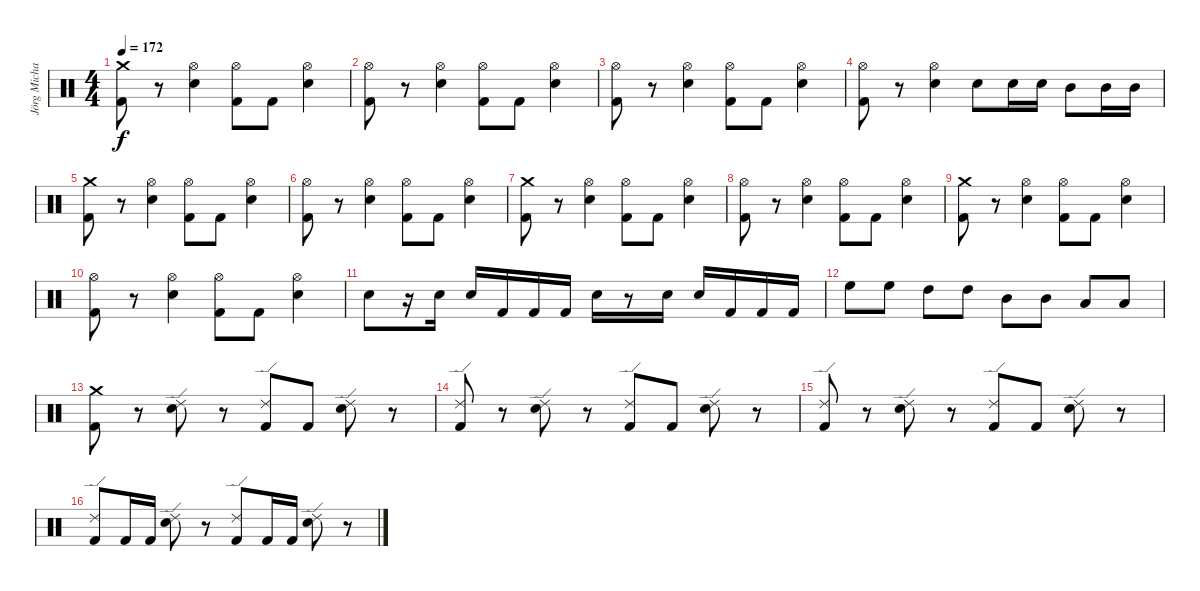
\track ("Jörg Michael" "Jörg Micha") {instrument percussion}
\staff {score}
\articulation defaults
\ts (4 4)
\tempo 172
\clef neutral
\ks c
("Kick (hit) 2" "Crash medium (hit)").8{dy f} r.8 ("Hi-Hat (open)" "Electric Snare (hit)").4 ("Hi-Hat (open)" "Kick (hit) 2").8 "Kick (hit) 2".8 ("Hi-Hat (open)" "Electric Snare (hit)").4 |
("Hi-Hat (open)" "Kick (hit) 2").8 r.8 ("Hi-Hat (open)" "Electric Snare (hit)").4 ("Hi-Hat (open)" "Kick (hit) 2").8 "Kick (hit) 2".8 ("Hi-Hat (open)" "Electric Snare (hit)").4 |
("Hi-Hat (open)" "Kick (hit) 2").8 r.8 ("Hi-Hat (open)" "Electric Snare (hit)").4 ("Hi-Hat (open)" "Kick (hit) 2").8 "Kick (hit) 2".8 ("Hi-Hat (open)" "Electric Snare (hit)").4 |
("Hi-Hat (open)" "Kick (hit) 2").8 r.8 ("Hi-Hat (open)" "Electric Snare (hit)").4 "Electric Snare (hit)".8 "Electric Snare (hit)".16 "Electric Snare (hit)".16 "Mid Tom (hit)".8 "Mid Tom (hit)".16 "Mid Tom (hit)".16 |
("Kick (hit) 2" "Crash medium (hit)").8 r.8 ("Hi-Hat (open)" "Electric Snare (hit)").4 ("Hi-Hat (open)" "Kick (hit) 2").8 "Kick (hit) 2".8 ("Hi-Hat (open)" "Electric Snare (hit)").4 |
("Hi-Hat (open)" "Kick (hit) 2").8 r.8 ("Hi-Hat (open)" "Electric Snare (hit)").4 ("Hi-Hat (open)" "Kick (hit) 2").8 "Kick (hit) 2".8 ("Hi-Hat (open)" "Electric Snare (hit)").4 |
("Crash medium (hit)" "Kick (hit) 2").8 r.8 ("Hi-Hat (open)" "Electric Snare (hit)").4 ("Hi-Hat (open)" "Kick (hit) 2").8 "Kick (hit) 2".8 ("Hi-Hat (open)" "Electric Snare (hit)").4 |
("Hi-Hat (open)" "Kick (hit) 2").8 r.8 ("Hi-Hat (open)" "Electric Snare (hit)").4 ("Hi-Hat (open)" "Kick (hit) 2").8 "Kick (hit) 2".8 ("Hi-Hat (open)" "Electric Snare (hit)").4 |
("Kick (hit) 2" "Crash medium (hit)").8 r.8 ("Hi-Hat (open)" "Electric Snare (hit)").4 ("Hi-Hat (open)" "Kick (hit) 2").8 "Kick (hit) 2".8 ("Hi-Hat (open)" "Electric Snare (hit)").4 |
("Hi-Hat (open)" "Kick (hit) 2").8 r.8 ("Hi-Hat (open)" "Electric Snare (hit)").4 ("Hi-Hat (open)" "Kick (hit) 2").8 "Kick (hit) 2".8 ("Hi-Hat (open)" "Electric Snare (hit)").4 |
"Electric Snare (hit)".8 r.16 "Electric Snare (hit)".16 "Electric Snare (hit)".16 "Kick (hit) 2".16 "Kick (hit) 2".16 "Kick (hit) 2".16 "Electric Snare (hit)".16 r.8 "Electric Snare (hit)".16 "Electric Snare (hit)".16 "Kick (hit) 2".16 "Kick (hit) 2".16 "Kick (hit) 2".16 |
"High Floor Tom (hit)".8 "High Floor Tom (hit)".8 "High Tom (hit)".8 "High Tom (hit)".8 "Mid Tom (hit)".8 "Mid Tom (hit)".8 "Low Tom (hit)".8 "Low Tom (hit)".8 |
("Crash medium (hit)" "Kick (hit) 2").8 r.8 ("Ride (edge) 2" "Electric Snare (hit)").8 r.8 ("Ride (edge) 2" "Kick (hit) 2").8 "Kick (hit) 2".8 ("Ride (edge) 2" "Electric Snare (hit)").8 r.8 |
("Ride (edge) 2" "Kick (hit) 2").8 r.8 ("Ride (edge) 2" "Electric Snare (hit)").8 r.8 ("Ride (edge) 2" "Kick (hit) 2").8 "Kick (hit) 2".8 ("Ride (edge) 2" "Electric Snare (hit)").8 r.8 |
("Ride (edge) 2" "Kick (hit) 2").8 r.8 ("Ride (edge) 2" "Electric Snare (hit)").8 r.8 ("Ride (edge) 2" "Kick (hit) 2").8 "Kick (hit) 2".8 ("Ride (edge) 2" "Electric Snare (hit)").8 r.8 |
("Ride (edge) 2" "Kick (hit) 2").8 "Kick (hit) 2".16 "Kick (hit) 2".16 ("Ride (edge) 2" "Electric Snare (hit)").8 r.8 ("Ride (edge) 2" "Kick (hit) 2").8 "Kick (hit) 2".16 "Kick (hit) 2".16 ("Ride (edge) 2" "Electric Snare (hit)").8 r.8
